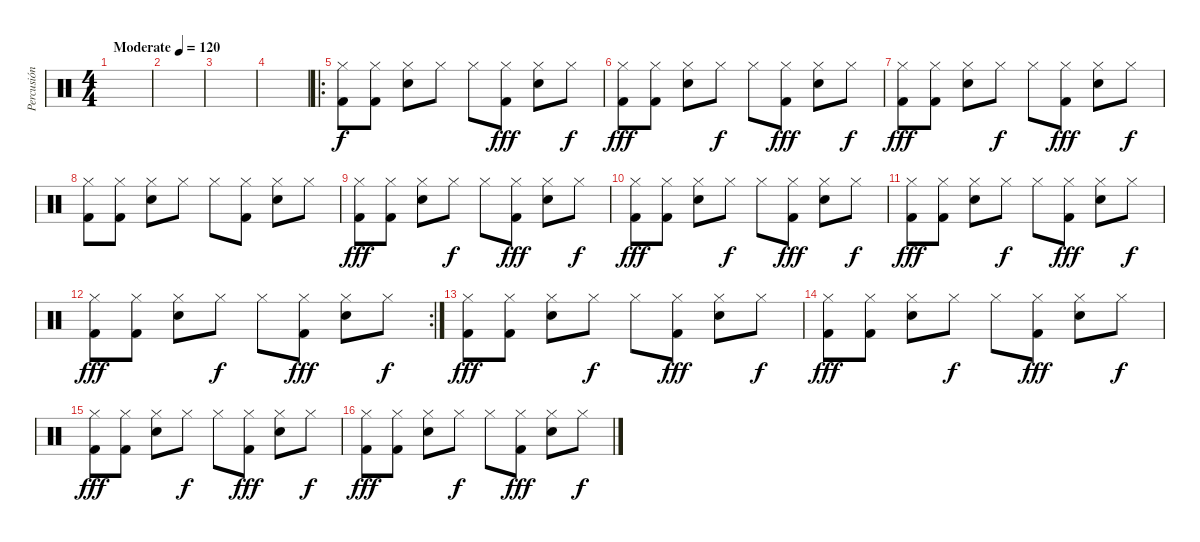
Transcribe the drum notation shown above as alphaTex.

\track ("Percusión" "Percusión") {instrument percussion}
\staff {score}
\articulation defaults
\ts (4 4)
\tempo (120 "Moderate")
\clef neutral
\ks c
|
|
|
|
\ro
("Hi-Hat (closed)" "Kick (hit) 2").8 ("Hi-Hat (closed)" "Kick (hit) 2").8 ("Hi-Hat (closed)" "Snare (hit) 2").8 "Hi-Hat (closed)".8{dy f} "Hi-Hat (closed)".8 ("Hi-Hat (closed)" "Kick (hit) 2").8{dy fff} ("Hi-Hat (closed)" "Snare (hit) 2").8 "Hi-Hat (closed)".8{dy f} |
("Hi-Hat (closed)" "Kick (hit) 2").8{dy fff} ("Hi-Hat (closed)" "Kick (hit) 2").8 ("Hi-Hat (closed)" "Snare (hit) 2").8 "Hi-Hat (closed)".8{dy f} "Hi-Hat (closed)".8 ("Hi-Hat (closed)" "Kick (hit) 2").8{dy fff} ("Hi-Hat (closed)" "Snare (hit) 2").8 "Hi-Hat (closed)".8{dy f} |
("Hi-Hat (closed)" "Kick (hit) 2").8{dy fff} ("Hi-Hat (closed)" "Kick (hit) 2").8 ("Hi-Hat (closed)" "Snare (hit) 2").8 "Hi-Hat (closed)".8{dy f} "Hi-Hat (closed)".8 ("Hi-Hat (closed)" "Kick (hit) 2").8{dy fff} ("Hi-Hat (closed)" "Snare (hit) 2").8 "Hi-Hat (closed)".8{dy f} |
("Hi-Hat (closed)" "Kick (hit) 2").8 ("Hi-Hat (closed)" "Kick (hit) 2").8 ("Hi-Hat (closed)" "Snare (hit) 2").8 "Hi-Hat (closed)".8 "Hi-Hat (closed)".8 ("Hi-Hat (closed)" "Kick (hit) 2").8 ("Hi-Hat (closed)" "Snare (hit) 2").8 "Hi-Hat (closed)".8 |
("Hi-Hat (closed)" "Kick (hit) 2").8{dy fff} ("Hi-Hat (closed)" "Kick (hit) 2").8 ("Hi-Hat (closed)" "Snare (hit) 2").8 "Hi-Hat (closed)".8{dy f} "Hi-Hat (closed)".8 ("Hi-Hat (closed)" "Kick (hit) 2").8{dy fff} ("Hi-Hat (closed)" "Snare (hit) 2").8 "Hi-Hat (closed)".8{dy f} |
("Hi-Hat (closed)" "Kick (hit) 2").8{dy fff} ("Hi-Hat (closed)" "Kick (hit) 2").8 ("Hi-Hat (closed)" "Snare (hit) 2").8 "Hi-Hat (closed)".8{dy f} "Hi-Hat (closed)".8 ("Hi-Hat (closed)" "Kick (hit) 2").8{dy fff} ("Hi-Hat (closed)" "Snare (hit) 2").8 "Hi-Hat (closed)".8{dy f} |
("Hi-Hat (closed)" "Kick (hit) 2").8{dy fff} ("Hi-Hat (closed)" "Kick (hit) 2").8 ("Hi-Hat (closed)" "Snare (hit) 2").8 "Hi-Hat (closed)".8{dy f} "Hi-Hat (closed)".8 ("Hi-Hat (closed)" "Kick (hit) 2").8{dy fff} ("Hi-Hat (closed)" "Snare (hit) 2").8 "Hi-Hat (closed)".8{dy f} |
\rc 2
("Hi-Hat (closed)" "Kick (hit) 2").8{dy fff} ("Hi-Hat (closed)" "Kick (hit) 2").8 ("Hi-Hat (closed)" "Snare (hit) 2").8 "Hi-Hat (closed)".8{dy f} "Hi-Hat (closed)".8 ("Hi-Hat (closed)" "Kick (hit) 2").8{dy fff} ("Hi-Hat (closed)" "Snare (hit) 2").8 "Hi-Hat (closed)".8{dy f} |
("Hi-Hat (closed)" "Kick (hit) 2").8{dy fff} ("Hi-Hat (closed)" "Kick (hit) 2").8 ("Hi-Hat (closed)" "Snare (hit) 2").8 "Hi-Hat (closed)".8{dy f} "Hi-Hat (closed)".8 ("Hi-Hat (closed)" "Kick (hit) 2").8{dy fff} ("Hi-Hat (closed)" "Snare (hit) 2").8 "Hi-Hat (closed)".8{dy f} |
("Hi-Hat (closed)" "Kick (hit) 2").8{dy fff} ("Hi-Hat (closed)" "Kick (hit) 2").8 ("Hi-Hat (closed)" "Snare (hit) 2").8 "Hi-Hat (closed)".8{dy f} "Hi-Hat (closed)".8 ("Hi-Hat (closed)" "Kick (hit) 2").8{dy fff} ("Hi-Hat (closed)" "Snare (hit) 2").8 "Hi-Hat (closed)".8{dy f} |
("Hi-Hat (closed)" "Kick (hit) 2").8{dy fff} ("Hi-Hat (closed)" "Kick (hit) 2").8 ("Hi-Hat (closed)" "Snare (hit) 2").8 "Hi-Hat (closed)".8{dy f} "Hi-Hat (closed)".8 ("Hi-Hat (closed)" "Kick (hit) 2").8{dy fff} ("Hi-Hat (closed)" "Snare (hit) 2").8 "Hi-Hat (closed)".8{dy f} |
("Hi-Hat (closed)" "Kick (hit) 2").8{dy fff} ("Hi-Hat (closed)" "Kick (hit) 2").8 ("Hi-Hat (closed)" "Snare (hit) 2").8 "Hi-Hat (closed)".8{dy f} "Hi-Hat (closed)".8 ("Hi-Hat (closed)" "Kick (hit) 2").8{dy fff} ("Hi-Hat (closed)" "Snare (hit) 2").8 "Hi-Hat (closed)".8{dy f}
